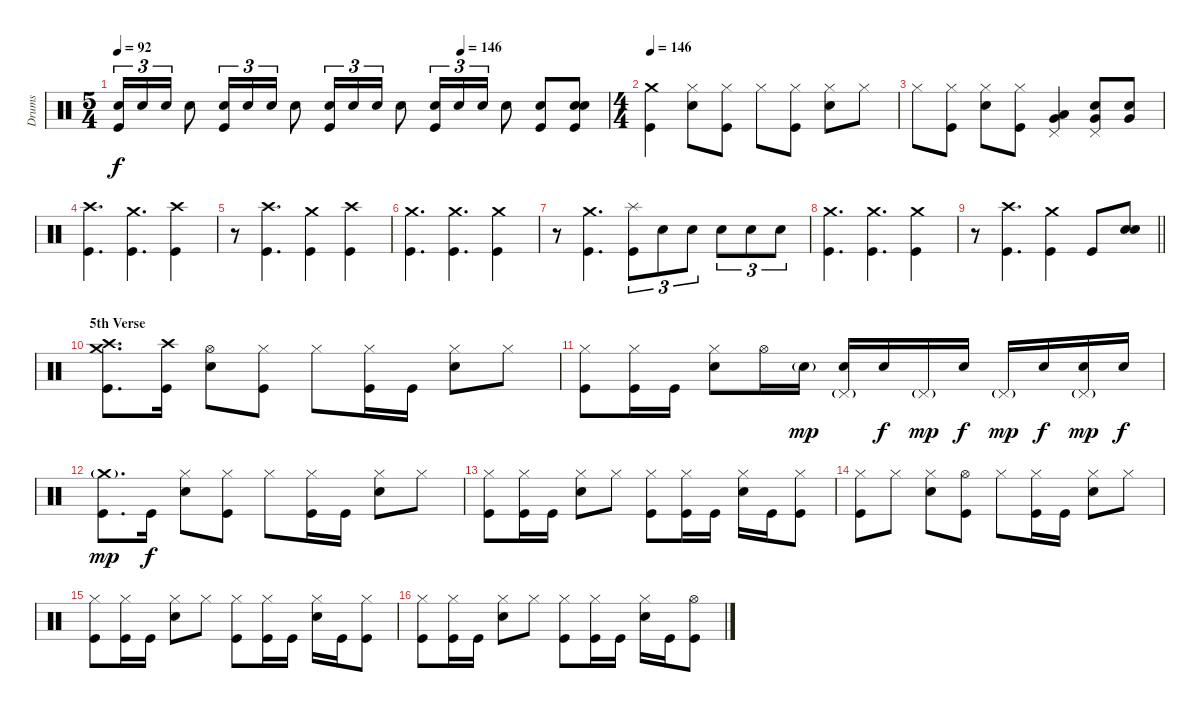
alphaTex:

\track ("Drums" "Drums") {instrument percussion}
\staff {score}
\articulation defaults
\ts (5 4)
\tempo 92
\tempo (146 0.7)
\clef neutral
\ks c
("Electric Snare (hit)" "Kick (hit)").16{tu (3 2) dy f} "Electric Snare (hit)".16{tu (3 2)} "Electric Snare (hit)".16{tu (3 2)} "Electric Snare (hit)".8 ("Electric Snare (hit)" "Kick (hit)").16{tu (3 2)} "Electric Snare (hit)".16{tu (3 2)} "Electric Snare (hit)".16{tu (3 2)} "Electric Snare (hit)".8 ("Electric Snare (hit)" "Kick (hit)").16{tu (3 2)} "Electric Snare (hit)".16{tu (3 2)} "Electric Snare (hit)".16{tu (3 2)} "Electric Snare (hit)".8 ("Electric Snare (hit)" "Kick (hit)").16{tu (3 2)} "Electric Snare (hit)".16{tu (3 2)} "Electric Snare (hit)".16{tu (3 2)} "Electric Snare (hit)".8 ("Electric Snare (hit)" "Kick (hit)").8 ("Electric Snare (hit)" "Electric Snare (hit)" "Kick (hit)").8 |
\ts (4 4)
\tempo 146
("Crash medium (hit)" "Kick (hit)").4 ("Hi-Hat (closed)" "Electric Snare (hit)").8 ("Hi-Hat (closed)" "Kick (hit)").8 "Hi-Hat (closed)".8 ("Hi-Hat (closed)" "Kick (hit)").8 ("Hi-Hat (closed)" "Electric Snare (hit)").8 "Hi-Hat (closed)".8 |
"Hi-Hat (closed)".8 ("Hi-Hat (closed)" "Kick (hit)").8 ("Hi-Hat (closed)" "Electric Snare (hit)").8 ("Hi-Hat (closed)" "Kick (hit)").8 ("Pedal Hi-Hat (hit)" "Low Tom (hit)" "Very Low Tom (hit)").4 ("Pedal Hi-Hat (hit)" "Electric Snare (hit)" "Very Low Tom (hit)").8 ("Electric Snare (hit)" "Very Low Tom (hit)").8 |
("Crash high (hit)" "Kick (hit)").4{d} ("Crash medium (hit)" "Kick (hit)").4{d} ("Crash high (hit)" "Kick (hit)").4 |
r.8 ("Crash high (hit)" "Kick (hit)").4{d} ("Crash medium (hit)" "Kick (hit)").4 ("Crash high (hit)" "Kick (hit)").4 |
("Crash medium (hit)" "Kick (hit)").4{d} ("Crash medium (hit)" "Kick (hit)").4{d} ("Crash medium (hit)" "Kick (hit)").4 |
r.8 ("Crash medium (hit)" "Kick (hit)").4{d} ("Splash (hit)" "Kick (hit)").8{tu (3 2)} "Electric Snare (hit)".8{tu (3 2)} "Electric Snare (hit)".8{tu (3 2)} "Electric Snare (hit)".8{tu (3 2)} "Electric Snare (hit)".8{tu (3 2)} "Electric Snare (hit)".8{tu (3 2)} |
("Crash medium (hit)" "Kick (hit)").4{d} ("Crash medium (hit)" "Kick (hit)").4{d} ("Crash medium (hit)" "Kick (hit)").4 |
\barLineRight lightlight
r.8 ("Crash high (hit)" "Kick (hit)").4{d} ("Crash medium (hit)" "Kick (hit)").4 "Kick (hit)".8 ("Electric Snare (hit)" "Electric Snare (hit)").8 |
\section ("" "5th Verse")
("Crash medium (hit)" "Crash high (hit)" "Kick (hit)").8{d} ("Crash high (hit)" "Kick (hit)").16 ("Hi-Hat (open)" "Electric Snare (hit)").8 ("Hi-Hat (closed)" "Kick (hit)").8 "Hi-Hat (closed)".8 ("Hi-Hat (closed)" "Kick (hit)").16 "Kick (hit)".16 ("Hi-Hat (closed)" "Electric Snare (hit)").8 "Hi-Hat (closed)".8 |
("Hi-Hat (closed)" "Kick (hit)").8 ("Hi-Hat (closed)" "Kick (hit)").16 "Kick (hit)".16 ("Hi-Hat (closed)" "Electric Snare (hit)").8 "Hi-Hat (open)".16 "Electric Snare (hit)"{g}.16{dy mp} ("Pedal Hi-Hat (hit)"{g} "Electric Snare (hit)").16 "Electric Snare (hit)".16{dy f} "Pedal Hi-Hat (hit)"{g}.16{dy mp} "Electric Snare (hit)".16{dy f} "Pedal Hi-Hat (hit)"{g}.16{dy mp} "Electric Snare (hit)".16{dy f} ("Pedal Hi-Hat (hit)"{g} "Electric Snare (hit)").16{dy mp} "Electric Snare (hit)".16{dy f} |
("Crash medium (hit)"{g} "Kick (hit)").8{d dy mp} "Kick (hit)".16{dy f} ("Hi-Hat (closed)" "Electric Snare (hit)").8 ("Hi-Hat (closed)" "Kick (hit)").8 "Hi-Hat (closed)".8 ("Hi-Hat (closed)" "Kick (hit)").16 "Kick (hit)".16 ("Hi-Hat (closed)" "Electric Snare (hit)").8 "Hi-Hat (closed)".8 |
("Hi-Hat (closed)" "Kick (hit)").8 ("Hi-Hat (closed)" "Kick (hit)").16 "Kick (hit)".16 ("Hi-Hat (closed)" "Electric Snare (hit)").8 "Hi-Hat (closed)".8 ("Hi-Hat (closed)" "Kick (hit)").8 ("Hi-Hat (closed)" "Kick (hit)").16 "Kick (hit)".16 ("Hi-Hat (closed)" "Electric Snare (hit)").16 "Kick (hit)".16 ("Hi-Hat (closed)" "Kick (hit)").8 |
("Hi-Hat (closed)" "Kick (hit)").8 "Hi-Hat (closed)".8 ("Hi-Hat (closed)" "Electric Snare (hit)").8 ("Hi-Hat (open)" "Kick (hit)").8 "Hi-Hat (closed)".8 ("Hi-Hat (closed)" "Kick (hit)").16 "Kick (hit)".16 ("Hi-Hat (closed)" "Electric Snare (hit)").8 "Hi-Hat (closed)".8 |
("Hi-Hat (closed)" "Kick (hit)").8 ("Hi-Hat (closed)" "Kick (hit)").16 "Kick (hit)".16 ("Hi-Hat (closed)" "Electric Snare (hit)").8 "Hi-Hat (closed)".8 ("Hi-Hat (closed)" "Kick (hit)").8 ("Hi-Hat (closed)" "Kick (hit)").16 "Kick (hit)".16 ("Hi-Hat (closed)" "Electric Snare (hit)").16 "Kick (hit)".16 ("Hi-Hat (closed)" "Kick (hit)").8 |
("Hi-Hat (closed)" "Kick (hit)").8 ("Hi-Hat (closed)" "Kick (hit)").16 "Kick (hit)".16 ("Hi-Hat (closed)" "Electric Snare (hit)").8 "Hi-Hat (closed)".8 ("Hi-Hat (closed)" "Kick (hit)").8 ("Hi-Hat (closed)" "Kick (hit)").16 "Kick (hit)".16 ("Hi-Hat (closed)" "Electric Snare (hit)").16 "Kick (hit)".16 ("Hi-Hat (open)" "Kick (hit)").8
